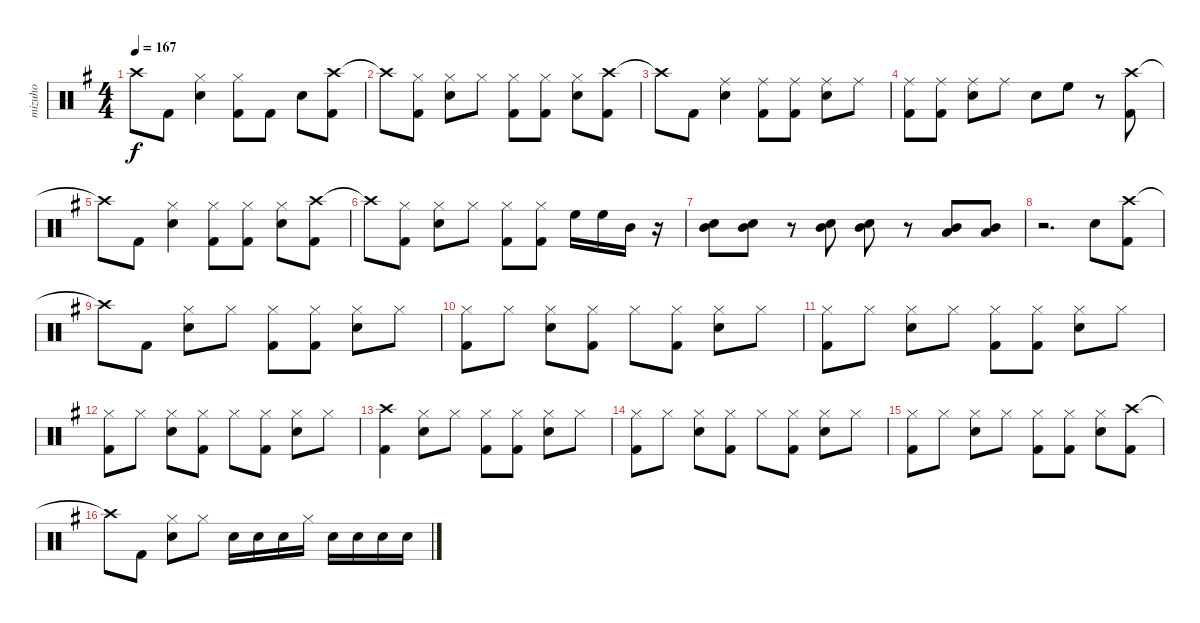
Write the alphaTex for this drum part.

\track ("mizuho" "mizuho") {instrument percussion}
\staff {score}
\articulation defaults
\ts (4 4)
\tempo 167
\clef neutral
\ks eminor "Crash high (hit)"{t}.8{dy f} "Kick (hit) 2".8
("Hi-Hat (closed)" "Electric Snare (hit)").4 ("Hi-Hat (closed)" "Kick (hit) 2").8 "Kick (hit) 2".8 "Electric Snare (hit)".8 ("Crash high (hit)" "Kick (hit) 2").8 |
"Crash high (hit)"{t}.8 ("Hi-Hat (closed)" "Kick (hit) 2").8 ("Hi-Hat (closed)" "Electric Snare (hit)").8 "Hi-Hat (closed)".8 ("Hi-Hat (closed)" "Kick (hit) 2").8 ("Hi-Hat (closed)" "Kick (hit) 2").8 ("Hi-Hat (closed)" "Electric Snare (hit)").8 ("Crash high (hit)" "Kick (hit) 2").8 |
"Crash high (hit)"{t}.8 "Kick (hit) 2".8 ("Ride (middle)" "Electric Snare (hit)").4 ("Ride (middle)" "Kick (hit) 2").8 ("Ride (middle)" "Kick (hit) 2").8 ("Ride (middle)" "Electric Snare (hit)").8 "Ride (middle)".8 |
("Ride (middle)" "Kick (hit) 2").8 ("Ride (middle)" "Kick (hit) 2").8 ("Ride (middle)" "Electric Snare (hit)").8 "Ride (middle)".8 "Electric Snare (hit)".8 "High Floor Tom (hit)".8 r.8 ("Crash high (hit)" "Kick (hit) 2").8 |
"Crash high (hit)"{t}.8 "Kick (hit) 2".8 ("Hi-Hat (closed)" "Electric Snare (hit)").4 ("Hi-Hat (closed)" "Kick (hit) 2").8 ("Hi-Hat (closed)" "Kick (hit) 2").8 ("Hi-Hat (closed)" "Electric Snare (hit)").8 ("Crash high (hit)" "Kick (hit) 2").8 |
"Crash high (hit)"{t}.8 ("Hi-Hat (closed)" "Kick (hit) 2").8 ("Hi-Hat (closed)" "Electric Snare (hit)").8 "Hi-Hat (closed)".8 ("Hi-Hat (closed)" "Kick (hit) 2").8 ("Hi-Hat (closed)" "Kick (hit) 2").8 "High Floor Tom (hit)".16 "High Floor Tom (hit)".16 "Mid Tom (hit)".16 r.16 |
("Mid Tom (hit)" "Snare (hit) 2").8 ("Mid Tom (hit)" "Snare (hit) 2").8 r.8 ("Mid Tom (hit)" "Snare (hit) 2").8 ("Mid Tom (hit)" "Snare (hit) 2").8 r.8 ("Mid Tom (hit)" "Low Floor Tom (hit)").8 ("Mid Tom (hit)" "Low Floor Tom (hit)").8 |
r.2{d} "Electric Snare (hit)".8 ("Crash high (hit)" "Kick (hit) 2").8 |
"Crash high (hit)"{t}.8 "Kick (hit) 2".8 ("Hi-Hat (closed)" "Electric Snare (hit)").8 "Hi-Hat (closed)".8 ("Hi-Hat (closed)" "Kick (hit) 2").8 ("Hi-Hat (closed)" "Kick (hit) 2").8 ("Hi-Hat (closed)" "Electric Snare (hit)").8 "Hi-Hat (closed)".8 |
("Hi-Hat (closed)" "Kick (hit) 2").8 "Hi-Hat (closed)".8 ("Hi-Hat (closed)" "Electric Snare (hit)").8 ("Hi-Hat (closed)" "Kick (hit) 2").8 "Hi-Hat (closed)".8 ("Hi-Hat (closed)" "Kick (hit) 2").8 ("Hi-Hat (closed)" "Electric Snare (hit)").8 "Hi-Hat (closed)".8 |
("Hi-Hat (closed)" "Kick (hit) 2").8 "Hi-Hat (closed)".8 ("Hi-Hat (closed)" "Electric Snare (hit)").8 "Hi-Hat (closed)".8 ("Hi-Hat (closed)" "Kick (hit) 2").8 ("Hi-Hat (closed)" "Kick (hit) 2").8 ("Hi-Hat (closed)" "Electric Snare (hit)").8 "Hi-Hat (closed)".8 |
("Hi-Hat (closed)" "Kick (hit) 2").8 "Hi-Hat (closed)".8 ("Hi-Hat (closed)" "Electric Snare (hit)").8 ("Hi-Hat (closed)" "Kick (hit) 2").8 "Hi-Hat (closed)".8 ("Hi-Hat (closed)" "Kick (hit) 2").8 ("Hi-Hat (closed)" "Electric Snare (hit)").8 "Hi-Hat (closed)".8 |
("Crash high (hit)" "Kick (hit) 2").4 ("Hi-Hat (closed)" "Electric Snare (hit)").8 "Hi-Hat (closed)".8 ("Hi-Hat (closed)" "Kick (hit) 2").8 ("Hi-Hat (closed)" "Kick (hit) 2").8 ("Hi-Hat (closed)" "Electric Snare (hit)").8 "Hi-Hat (closed)".8 |
("Hi-Hat (closed)" "Kick (hit) 2").8 "Hi-Hat (closed)".8 ("Hi-Hat (closed)" "Electric Snare (hit)").8 ("Hi-Hat (closed)" "Kick (hit) 2").8 "Hi-Hat (closed)".8 ("Hi-Hat (closed)" "Kick (hit) 2").8 ("Hi-Hat (closed)" "Electric Snare (hit)").8 "Hi-Hat (closed)".8 |
("Hi-Hat (closed)" "Kick (hit) 2").8 "Hi-Hat (closed)".8 ("Hi-Hat (closed)" "Electric Snare (hit)").8 "Hi-Hat (closed)".8 ("Hi-Hat (closed)" "Kick (hit) 2").8 ("Hi-Hat (closed)" "Kick (hit) 2").8 ("Hi-Hat (closed)" "Electric Snare (hit)").8 ("Crash high (hit)" "Kick (hit) 2").8 |
"Crash high (hit)"{t}.8 "Kick (hit) 2".8 ("Hi-Hat (closed)" "Electric Snare (hit)").8 "Hi-Hat (closed)".8 "Snare (hit) 2".16 "Snare (hit) 2".16 "Snare (hit) 2".16 "Hi-Hat (closed)".16 "Snare (hit) 2".16 "Snare (hit) 2".16 "Snare (hit) 2".16 "Snare (hit) 2".16
